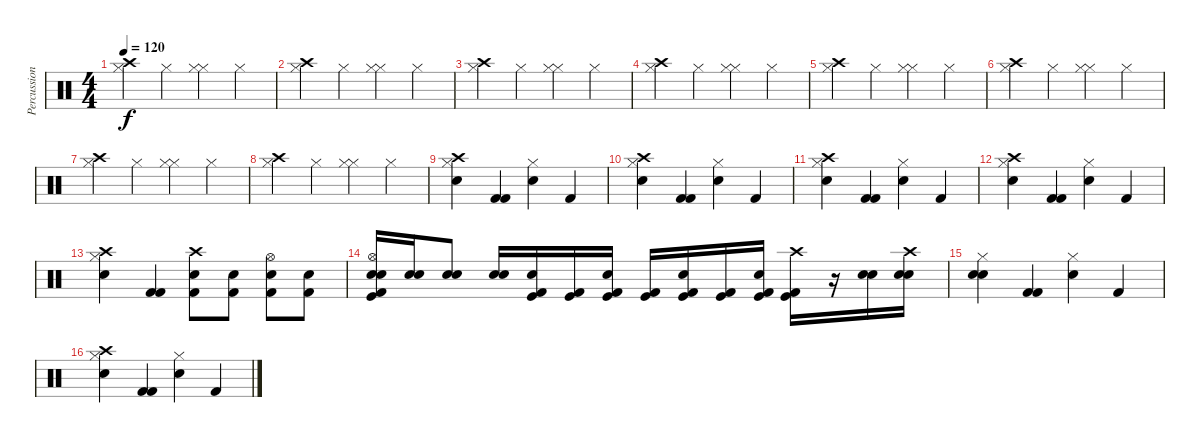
\track ("Percussions" "Percussion") {instrument percussion}
\staff {score}
\articulation defaults
\ts (4 4)
\tempo 120
\clef neutral
\ks c
("Crash high (hit)" "Hi-Hat (closed)").4{dy f} "Hi-Hat (closed)".4 ("Hi-Hat (closed)" "Hi-Hat (closed)").4 "Hi-Hat (closed)".4 |
("Crash high (hit)" "Hi-Hat (closed)").4 "Hi-Hat (closed)".4 ("Hi-Hat (closed)" "Hi-Hat (closed)").4 "Hi-Hat (closed)".4 |
("Crash high (hit)" "Hi-Hat (closed)").4 "Hi-Hat (closed)".4 ("Hi-Hat (closed)" "Hi-Hat (closed)").4 "Hi-Hat (closed)".4 |
("Crash high (hit)" "Hi-Hat (closed)").4 "Hi-Hat (closed)".4 ("Hi-Hat (closed)" "Hi-Hat (closed)").4 "Hi-Hat (closed)".4 |
("Crash high (hit)" "Hi-Hat (closed)").4 "Hi-Hat (closed)".4 ("Hi-Hat (closed)" "Hi-Hat (closed)").4 "Hi-Hat (closed)".4 |
("Crash high (hit)" "Hi-Hat (closed)").4 "Hi-Hat (closed)".4 ("Hi-Hat (closed)" "Hi-Hat (closed)").4 "Hi-Hat (closed)".4 |
("Crash high (hit)" "Hi-Hat (closed)").4 "Hi-Hat (closed)".4 ("Hi-Hat (closed)" "Hi-Hat (closed)").4 "Hi-Hat (closed)".4 |
("Crash high (hit)" "Hi-Hat (closed)").4 "Hi-Hat (closed)".4 ("Hi-Hat (closed)" "Hi-Hat (closed)").4 "Hi-Hat (closed)".4 |
("Crash high (hit)" "Electric Snare (hit)" "Hi-Hat (closed)").4 ("Kick (hit) 2" "Kick (hit) 2").4 ("Electric Snare (hit)" "Hi-Hat (closed)").4 "Kick (hit) 2".4 |
("Crash high (hit)" "Electric Snare (hit)" "Hi-Hat (closed)").4 ("Kick (hit) 2" "Kick (hit) 2").4 ("Electric Snare (hit)" "Hi-Hat (closed)").4 "Kick (hit) 2".4 |
("Crash high (hit)" "Electric Snare (hit)" "Hi-Hat (closed)").4 ("Kick (hit) 2" "Kick (hit) 2").4 ("Electric Snare (hit)" "Hi-Hat (closed)").4 "Kick (hit) 2".4 |
("Crash high (hit)" "Electric Snare (hit)" "Hi-Hat (closed)").4 ("Kick (hit) 2" "Kick (hit) 2").4 ("Electric Snare (hit)" "Hi-Hat (closed)").4 "Kick (hit) 2".4 |
("Crash high (hit)" "Electric Snare (hit)" "Hi-Hat (closed)").4 ("Kick (hit) 2" "Kick (hit) 2").4 ("Crash high (hit)" "Electric Snare (hit)" "Kick (hit) 2").8 ("Electric Snare (hit)" "Kick (hit) 2").8 ("Hi-Hat (open)" "Electric Snare (hit)" "Kick (hit) 2").8 ("Electric Snare (hit)" "Kick (hit) 2").8 |
("Hi-Hat (open)" "Electric Snare (hit)" "Electric Snare (hit)" "Kick (hit)" "Kick (hit) 2").16 ("Electric Snare (hit)" "Electric Snare (hit)").16 ("Electric Snare (hit)" "Electric Snare (hit)").8 ("Electric Snare (hit)" "Electric Snare (hit)").16 ("Electric Snare (hit)" "Kick (hit)" "Kick (hit) 2").16 ("Kick (hit) 2" "Kick (hit)").16 ("Electric Snare (hit)" "Kick (hit) 2" "Kick (hit)").16 ("Kick (hit)" "Kick (hit) 2").16 ("Electric Snare (hit)" "Kick (hit) 2" "Kick (hit)").16 ("Kick (hit)" "Kick (hit) 2").16 ("Electric Snare (hit)" "Kick (hit) 2" "Kick (hit)").16 ("Crash high (hit)" "Kick (hit)" "Kick (hit) 2").16 r.16 ("Electric Snare (hit)" "Electric Snare (hit)").16 ("Crash high (hit)" "Electric Snare (hit)" "Electric Snare (hit)").16 |
("Electric Snare (hit)" "Electric Snare (hit)" "Hi-Hat (closed)").4 ("Kick (hit) 2" "Kick (hit) 2").4 ("Electric Snare (hit)" "Hi-Hat (closed)").4 "Kick (hit) 2".4 |
("Crash high (hit)" "Electric Snare (hit)" "Hi-Hat (closed)").4 ("Kick (hit) 2" "Kick (hit) 2").4 ("Electric Snare (hit)" "Hi-Hat (closed)").4 "Kick (hit) 2".4
